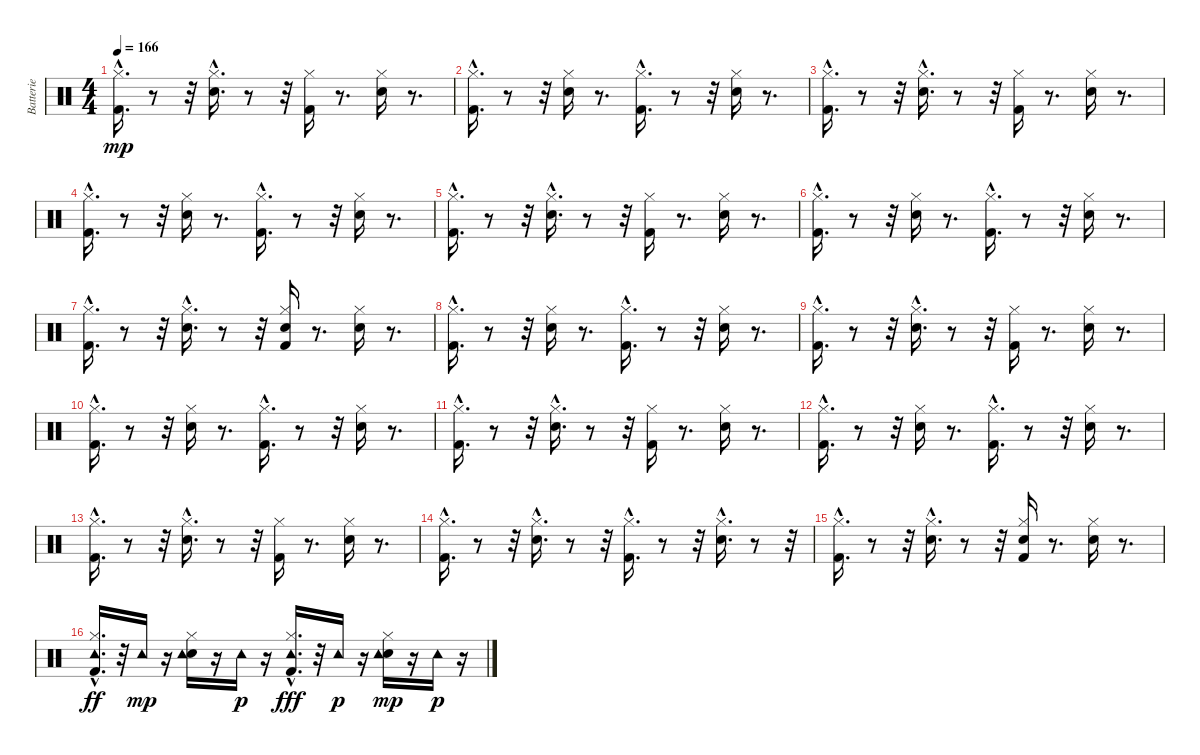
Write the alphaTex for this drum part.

\track ("Batterie" "Batterie") {instrument percussion}
\staff {score}
\articulation defaults
\ts (4 4)
\tempo 166
\clef neutral
\ks c
("Kick (hit) 2"{hac} "Hi-Hat (closed)").16{d dy mp} r.8 r.32 ("Electric Snare (hit)" "Hi-Hat (closed)"{hac}).16{d} r.8 r.32 ("Kick (hit) 2" "Hi-Hat (closed)").16 r.8{d} ("Electric Snare (hit)" "Hi-Hat (closed)").16 r.8{d} |
("Kick (hit) 2"{hac} "Hi-Hat (closed)"{hac}).16{d} r.8 r.32 ("Electric Snare (hit)" "Hi-Hat (closed)").16 r.8{d} ("Kick (hit) 2"{hac} "Hi-Hat (closed)").16{d} r.8 r.32 ("Electric Snare (hit)" "Hi-Hat (closed)").16 r.8{d} |
("Kick (hit) 2"{hac} "Hi-Hat (closed)").16{d} r.8 r.32 ("Electric Snare (hit)" "Hi-Hat (closed)"{hac}).16{d} r.8 r.32 ("Kick (hit) 2" "Hi-Hat (closed)").16 r.8{d} ("Electric Snare (hit)" "Hi-Hat (closed)").16 r.8{d} |
("Kick (hit) 2"{hac} "Hi-Hat (closed)"{hac}).16{d} r.8 r.32 ("Electric Snare (hit)" "Hi-Hat (closed)").16 r.8{d} ("Kick (hit) 2"{hac} "Hi-Hat (closed)").16{d} r.8 r.32 ("Electric Snare (hit)" "Hi-Hat (closed)").16 r.8{d} |
("Kick (hit) 2"{hac} "Hi-Hat (closed)").16{d} r.8 r.32 ("Electric Snare (hit)" "Hi-Hat (closed)"{hac}).16{d} r.8 r.32 ("Kick (hit) 2" "Hi-Hat (closed)").16 r.8{d} ("Electric Snare (hit)" "Hi-Hat (closed)").16 r.8{d} |
("Kick (hit) 2"{hac} "Hi-Hat (closed)"{hac}).16{d} r.8 r.32 ("Electric Snare (hit)" "Hi-Hat (closed)").16 r.8{d} ("Kick (hit) 2"{hac} "Hi-Hat (closed)").16{d} r.8 r.32 ("Electric Snare (hit)" "Hi-Hat (closed)").16 r.8{d} |
("Kick (hit) 2"{hac} "Hi-Hat (closed)").16{d} r.8 r.32 ("Electric Snare (hit)" "Hi-Hat (closed)"{hac}).16{d} r.8 r.32 ("Kick (hit) 2" "Electric Snare (hit)" "Hi-Hat (closed)").16 r.8{d} ("Electric Snare (hit)" "Hi-Hat (closed)").16 r.8{d} |
("Kick (hit) 2"{hac} "Hi-Hat (closed)"{hac}).16{d} r.8 r.32 ("Electric Snare (hit)" "Hi-Hat (closed)").16 r.8{d} ("Kick (hit) 2"{hac} "Hi-Hat (closed)").16{d} r.8 r.32 ("Electric Snare (hit)" "Hi-Hat (closed)").16 r.8{d} |
("Kick (hit) 2"{hac} "Hi-Hat (closed)").16{d} r.8 r.32 ("Electric Snare (hit)" "Hi-Hat (closed)"{hac}).16{d} r.8 r.32 ("Kick (hit) 2" "Hi-Hat (closed)").16 r.8{d} ("Electric Snare (hit)" "Hi-Hat (closed)").16 r.8{d} |
("Kick (hit) 2"{hac} "Hi-Hat (closed)"{hac}).16{d} r.8 r.32 ("Electric Snare (hit)" "Hi-Hat (closed)").16 r.8{d} ("Kick (hit) 2"{hac} "Hi-Hat (closed)").16{d} r.8 r.32 ("Electric Snare (hit)" "Hi-Hat (closed)").16 r.8{d} |
("Kick (hit) 2"{hac} "Hi-Hat (closed)").16{d} r.8 r.32 ("Electric Snare (hit)" "Hi-Hat (closed)"{hac}).16{d} r.8 r.32 ("Kick (hit) 2" "Hi-Hat (closed)").16 r.8{d} ("Electric Snare (hit)" "Hi-Hat (closed)").16 r.8{d} |
("Kick (hit) 2"{hac} "Hi-Hat (closed)"{hac}).16{d} r.8 r.32 ("Electric Snare (hit)" "Hi-Hat (closed)").16 r.8{d} ("Kick (hit) 2"{hac} "Hi-Hat (closed)").16{d} r.8 r.32 ("Electric Snare (hit)" "Hi-Hat (closed)").16 r.8{d} |
("Kick (hit) 2"{hac} "Hi-Hat (closed)").16{d} r.8 r.32 ("Electric Snare (hit)" "Hi-Hat (closed)"{hac}).16{d} r.8 r.32 ("Kick (hit) 2" "Hi-Hat (closed)").16 r.8{d} ("Electric Snare (hit)" "Hi-Hat (closed)").16 r.8{d} |
("Kick (hit) 2"{hac} "Hi-Hat (closed)"{hac}).16{d} r.8 r.32 ("Electric Snare (hit)"{hac} "Hi-Hat (closed)").16{d} r.8 r.32 ("Kick (hit) 2"{hac} "Hi-Hat (closed)").16{d} r.8 r.32 ("Electric Snare (hit)"{hac} "Hi-Hat (closed)").16{d} r.8 r.32 |
("Kick (hit) 2"{hac} "Hi-Hat (closed)").16{d} r.8 r.32 ("Electric Snare (hit)" "Hi-Hat (closed)"{hac}).16{d} r.8 r.32 ("Kick (hit) 2" "Electric Snare (hit)" "Hi-Hat (closed)").16 r.8{d} ("Electric Snare (hit)" "Hi-Hat (closed)").16 r.8{d} |
("Kick (hit) 2"{hac} "Hi-Hat (closed)"{hac} "Tambourine (hit)").16{d dy ff} r.32 "Tambourine (hit)".16{dy mp} r.16 ("Electric Snare (hit)" "Hi-Hat (closed)" "Tambourine (hit)").16 r.16 "Tambourine (hit)".16{dy p} r.16 ("Kick (hit) 2"{hac} "Hi-Hat (closed)" "Tambourine (hit)").16{d dy fff} r.32 "Tambourine (hit)".16{dy p} r.16 ("Electric Snare (hit)" "Hi-Hat (closed)" "Tambourine (hit)").16{dy mp} r.16 "Tambourine (hit)".16{dy p} r.16
